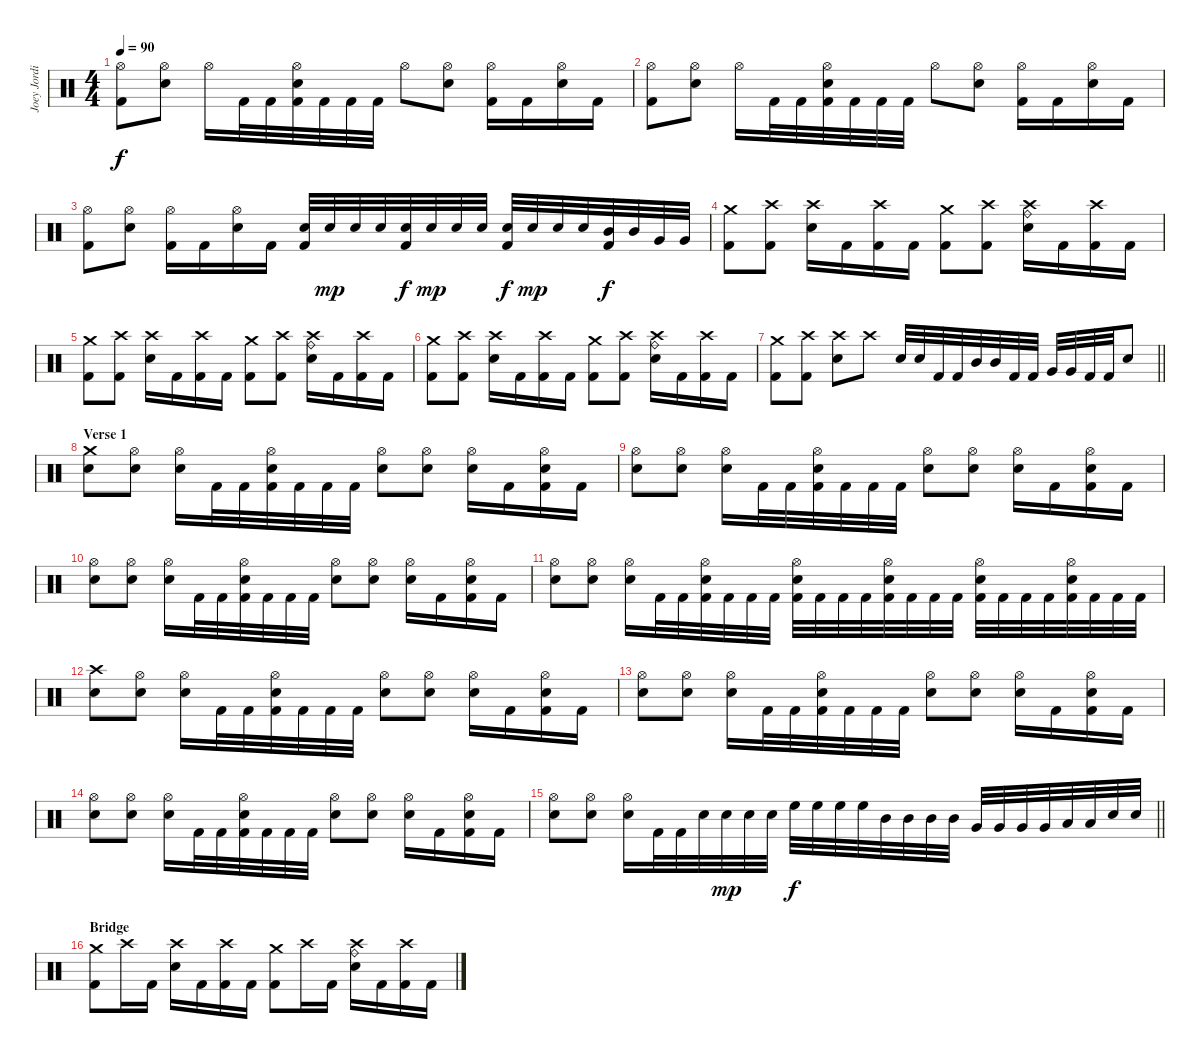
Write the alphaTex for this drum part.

\track ("Joey Jordison" "Joey Jordi") {instrument percussion}
\staff {score}
\articulation defaults
\ts (4 4)
\tempo 90
\clef neutral
\ks c
("Hi-Hat (open)" "Kick (hit) 2").8{dy f} ("Hi-Hat (open)" "Electric Snare (hit)").8 "Hi-Hat (open)".16 "Kick (hit) 2".32 "Kick (hit) 2".32 ("Hi-Hat (open)" "Electric Snare (hit)" "Kick (hit) 2").32 "Kick (hit) 2".32 "Kick (hit) 2".32 "Kick (hit) 2".32 "Hi-Hat (open)".8 ("Hi-Hat (open)" "Electric Snare (hit)").8 ("Hi-Hat (open)" "Kick (hit) 2").16 "Kick (hit) 2".16 ("Hi-Hat (open)" "Electric Snare (hit)").16 "Kick (hit) 2".16 |
("Hi-Hat (open)" "Kick (hit) 2").8 ("Hi-Hat (open)" "Electric Snare (hit)").8 "Hi-Hat (open)".16 "Kick (hit) 2".32 "Kick (hit) 2".32 ("Hi-Hat (open)" "Electric Snare (hit)" "Kick (hit) 2").32 "Kick (hit) 2".32 "Kick (hit) 2".32 "Kick (hit) 2".32 "Hi-Hat (open)".8 ("Hi-Hat (open)" "Electric Snare (hit)").8 ("Hi-Hat (open)" "Kick (hit) 2").16 "Kick (hit) 2".16 ("Hi-Hat (open)" "Electric Snare (hit)").16 "Kick (hit) 2".16 |
("Hi-Hat (open)" "Kick (hit) 2").8 ("Hi-Hat (open)" "Electric Snare (hit)").8 ("Hi-Hat (open)" "Kick (hit) 2").16 "Kick (hit) 2".16 ("Hi-Hat (open)" "Electric Snare (hit)").16 "Kick (hit) 2".16 ("Electric Snare (hit)" "Kick (hit) 2").32 "Electric Snare (hit)".32{dy mp} "Electric Snare (hit)".32 "Electric Snare (hit)".32 ("Electric Snare (hit)" "Kick (hit) 2").32{dy f} "Electric Snare (hit)".32{dy mp} "Electric Snare (hit)".32 "Electric Snare (hit)".32 ("Electric Snare (hit)" "Kick (hit) 2").32{dy f} "Electric Snare (hit)".32{dy mp} "Electric Snare (hit)".32 "Electric Snare (hit)".32 ("Mid Tom (hit)" "Kick (hit) 2").32{dy f} "Mid Tom (hit)".32 "Very Low Tom (hit)".32 "Very Low Tom (hit)".32 |
("Crash medium (hit)" "Kick (hit) 2").8 ("Crash high (hit)" "Kick (hit) 2").8 ("Crash high (hit)" "Electric Snare (hit)").16 "Kick (hit) 2".16 ("Crash high (hit)" "Kick (hit) 2").16 "Kick (hit) 2".16 ("Crash medium (hit)" "Kick (hit) 2").8 ("Crash high (hit)" "Kick (hit) 2").8 ("Crash high (hit)" "Ride (bell)" "Electric Snare (hit)").16 "Kick (hit) 2".16 ("Crash high (hit)" "Kick (hit) 2").16 "Kick (hit) 2".16 |
("Crash medium (hit)" "Kick (hit) 2").8 ("Crash high (hit)" "Kick (hit) 2").8 ("Crash high (hit)" "Electric Snare (hit)").16 "Kick (hit) 2".16 ("Crash high (hit)" "Kick (hit) 2").16 "Kick (hit) 2".16 ("Crash medium (hit)" "Kick (hit) 2").8 ("Crash high (hit)" "Kick (hit) 2").8 ("Crash high (hit)" "Ride (bell)" "Electric Snare (hit)").16 "Kick (hit) 2".16 ("Crash high (hit)" "Kick (hit) 2").16 "Kick (hit) 2".16 |
("Crash medium (hit)" "Kick (hit) 2").8 ("Crash high (hit)" "Kick (hit) 2").8 ("Crash high (hit)" "Electric Snare (hit)").16 "Kick (hit) 2".16 ("Crash high (hit)" "Kick (hit) 2").16 "Kick (hit) 2".16 ("Crash medium (hit)" "Kick (hit) 2").8 ("Crash high (hit)" "Kick (hit) 2").8 ("Crash high (hit)" "Ride (bell)" "Electric Snare (hit)").16 "Kick (hit) 2".16 ("Crash high (hit)" "Kick (hit) 2").16 "Kick (hit) 2".16 |
\barLineRight lightlight
("Crash medium (hit)" "Kick (hit) 2").8 ("Crash high (hit)" "Kick (hit) 2").8 ("Crash high (hit)" "Electric Snare (hit)").8 "Crash high (hit)".8 "Electric Snare (hit)".32 "Electric Snare (hit)".32 "Kick (hit) 2".32 "Kick (hit) 2".32 "Mid Tom (hit)".32 "Mid Tom (hit)".32 "Kick (hit) 2".32 "Kick (hit) 2".32 "Very Low Tom (hit)".32 "Very Low Tom (hit)".32 "Kick (hit) 2".32 "Kick (hit) 2".32 "Electric Snare (hit)".8 |
\section ("" "Verse 1")
("Crash medium (hit)" "Electric Snare (hit)").8 ("Hi-Hat (open)" "Electric Snare (hit)").8 ("Hi-Hat (open)" "Electric Snare (hit)").16 "Kick (hit) 2".32 "Kick (hit) 2".32 ("Hi-Hat (open)" "Electric Snare (hit)" "Kick (hit) 2").32 "Kick (hit) 2".32 "Kick (hit) 2".32 "Kick (hit) 2".32 ("Hi-Hat (open)" "Electric Snare (hit)").8 ("Hi-Hat (open)" "Electric Snare (hit)").8 ("Hi-Hat (open)" "Electric Snare (hit)").16 "Kick (hit) 2".16 ("Hi-Hat (open)" "Electric Snare (hit)" "Kick (hit) 2").16 "Kick (hit) 2".16 |
("Hi-Hat (open)" "Electric Snare (hit)").8 ("Hi-Hat (open)" "Electric Snare (hit)").8 ("Hi-Hat (open)" "Electric Snare (hit)").16 "Kick (hit) 2".32 "Kick (hit) 2".32 ("Hi-Hat (open)" "Electric Snare (hit)" "Kick (hit) 2").32 "Kick (hit) 2".32 "Kick (hit) 2".32 "Kick (hit) 2".32 ("Hi-Hat (open)" "Electric Snare (hit)").8 ("Hi-Hat (open)" "Electric Snare (hit)").8 ("Hi-Hat (open)" "Electric Snare (hit)").16 "Kick (hit) 2".16 ("Hi-Hat (open)" "Electric Snare (hit)" "Kick (hit) 2").16 "Kick (hit) 2".16 |
("Hi-Hat (open)" "Electric Snare (hit)").8 ("Hi-Hat (open)" "Electric Snare (hit)").8 ("Hi-Hat (open)" "Electric Snare (hit)").16 "Kick (hit) 2".32 "Kick (hit) 2".32 ("Hi-Hat (open)" "Electric Snare (hit)" "Kick (hit) 2").32 "Kick (hit) 2".32 "Kick (hit) 2".32 "Kick (hit) 2".32 ("Hi-Hat (open)" "Electric Snare (hit)").8 ("Hi-Hat (open)" "Electric Snare (hit)").8 ("Hi-Hat (open)" "Electric Snare (hit)").16 "Kick (hit) 2".16 ("Hi-Hat (open)" "Electric Snare (hit)" "Kick (hit) 2").16 "Kick (hit) 2".16 |
("Hi-Hat (open)" "Electric Snare (hit)").8 ("Hi-Hat (open)" "Electric Snare (hit)").8 ("Hi-Hat (open)" "Electric Snare (hit)").16 "Kick (hit) 2".32 "Kick (hit) 2".32 ("Hi-Hat (open)" "Electric Snare (hit)" "Kick (hit) 2").32 "Kick (hit) 2".32 "Kick (hit) 2".32 "Kick (hit) 2".32 ("Hi-Hat (open)" "Electric Snare (hit)" "Kick (hit) 2").32 "Kick (hit) 2".32 "Kick (hit) 2".32 "Kick (hit) 2".32 ("Hi-Hat (open)" "Electric Snare (hit)" "Kick (hit) 2").32 "Kick (hit) 2".32 "Kick (hit) 2".32 "Kick (hit) 2".32 ("Hi-Hat (open)" "Electric Snare (hit)" "Kick (hit) 2").32 "Kick (hit) 2".32 "Kick (hit) 2".32 "Kick (hit) 2".32 ("Hi-Hat (open)" "Electric Snare (hit)" "Kick (hit) 2").32 "Kick (hit) 2".32 "Kick (hit) 2".32 "Kick (hit) 2".32 |
("Crash high (hit)" "Electric Snare (hit)").8 ("Hi-Hat (open)" "Electric Snare (hit)").8 ("Hi-Hat (open)" "Electric Snare (hit)").16 "Kick (hit) 2".32 "Kick (hit) 2".32 ("Hi-Hat (open)" "Electric Snare (hit)" "Kick (hit) 2").32 "Kick (hit) 2".32 "Kick (hit) 2".32 "Kick (hit) 2".32 ("Hi-Hat (open)" "Electric Snare (hit)").8 ("Hi-Hat (open)" "Electric Snare (hit)").8 ("Hi-Hat (open)" "Electric Snare (hit)").16 "Kick (hit) 2".16 ("Hi-Hat (open)" "Electric Snare (hit)" "Kick (hit) 2").16 "Kick (hit) 2".16 |
("Hi-Hat (open)" "Electric Snare (hit)").8 ("Hi-Hat (open)" "Electric Snare (hit)").8 ("Hi-Hat (open)" "Electric Snare (hit)").16 "Kick (hit) 2".32 "Kick (hit) 2".32 ("Hi-Hat (open)" "Electric Snare (hit)" "Kick (hit) 2").32 "Kick (hit) 2".32 "Kick (hit) 2".32 "Kick (hit) 2".32 ("Hi-Hat (open)" "Electric Snare (hit)").8 ("Hi-Hat (open)" "Electric Snare (hit)").8 ("Hi-Hat (open)" "Electric Snare (hit)").16 "Kick (hit) 2".16 ("Hi-Hat (open)" "Electric Snare (hit)" "Kick (hit) 2").16 "Kick (hit) 2".16 |
("Hi-Hat (open)" "Electric Snare (hit)").8 ("Hi-Hat (open)" "Electric Snare (hit)").8 ("Hi-Hat (open)" "Electric Snare (hit)").16 "Kick (hit) 2".32 "Kick (hit) 2".32 ("Hi-Hat (open)" "Electric Snare (hit)" "Kick (hit) 2").32 "Kick (hit) 2".32 "Kick (hit) 2".32 "Kick (hit) 2".32 ("Hi-Hat (open)" "Electric Snare (hit)").8 ("Hi-Hat (open)" "Electric Snare (hit)").8 ("Hi-Hat (open)" "Electric Snare (hit)").16 "Kick (hit) 2".16 ("Hi-Hat (open)" "Electric Snare (hit)" "Kick (hit) 2").16 "Kick (hit) 2".16 |
\barLineRight lightlight
("Hi-Hat (open)" "Electric Snare (hit)").8 ("Hi-Hat (open)" "Electric Snare (hit)").8 ("Hi-Hat (open)" "Electric Snare (hit)").16 "Kick (hit) 2".32 "Kick (hit) 2".32 "Electric Snare (hit)".32 "Electric Snare (hit)".32{dy mp} "Electric Snare (hit)".32 "Electric Snare (hit)".32 "High Floor Tom (hit)".32{dy f} "High Floor Tom (hit)".32 "High Floor Tom (hit)".32 "High Floor Tom (hit)".32 "Mid Tom (hit)".32 "Mid Tom (hit)".32 "Mid Tom (hit)".32 "Mid Tom (hit)".32 "Very Low Tom (hit)".32 "Very Low Tom (hit)".32 "Very Low Tom (hit)".32 "Very Low Tom (hit)".32 "Low Floor Tom (hit)".32 "Low Floor Tom (hit)".32 "Electric Snare (hit)".32 "Electric Snare (hit)".32 |
\section ("" "Bridge")
("Crash medium (hit)" "Kick (hit) 2").8 "Crash high (hit)".16 "Kick (hit) 2".16 ("Crash high (hit)" "Electric Snare (hit)").16 "Kick (hit) 2".16 ("Crash high (hit)" "Kick (hit) 2").16 "Kick (hit) 2".16 ("Crash medium (hit)" "Kick (hit) 2").8 "Crash high (hit)".16 "Kick (hit) 2".16 ("Crash high (hit)" "Ride (bell)" "Electric Snare (hit)").16 "Kick (hit) 2".16 ("Crash high (hit)" "Kick (hit) 2").16 "Kick (hit) 2".16
